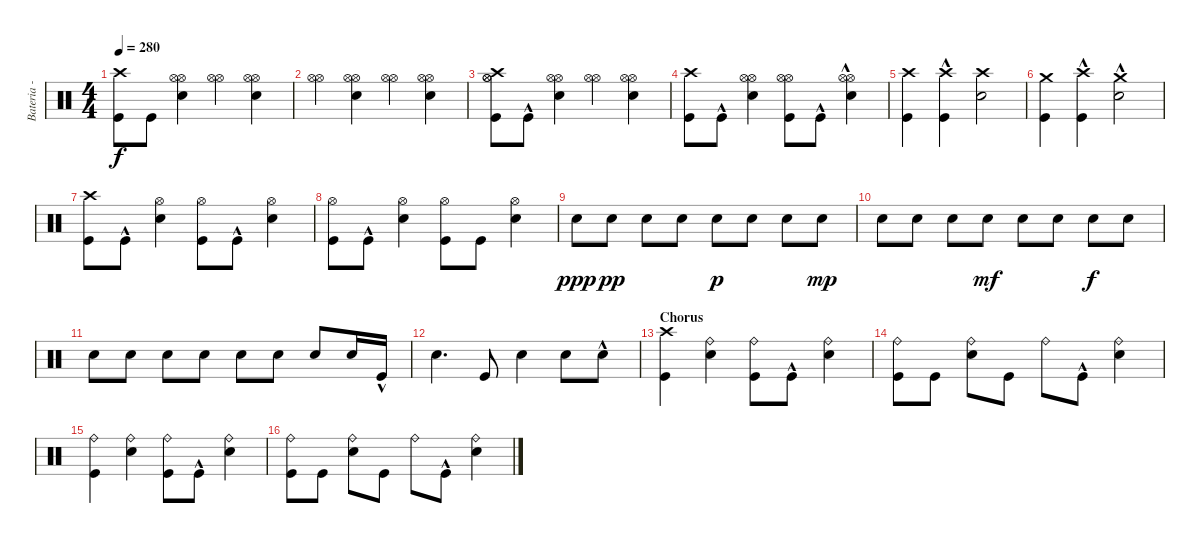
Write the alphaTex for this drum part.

\track ("Bateria - Larzon" "Bateria - ") {instrument percussion}
\staff {score}
\articulation defaults
\ts (4 4)
\tempo 280
\clef neutral
\ks c
("Kick (hit)" "Crash high (hit)").8{dy f} "Kick (hit)".8 ("Snare (hit) 2" "Hi-Hat (open)" "Hi-Hat (open)").4 ("Hi-Hat (open)" "Hi-Hat (open)").4 ("Snare (hit) 2" "Hi-Hat (open)" "Hi-Hat (open)").4 |
("Hi-Hat (open)" "Hi-Hat (open)").4 ("Snare (hit) 2" "Hi-Hat (open)" "Hi-Hat (open)").4 ("Hi-Hat (open)" "Hi-Hat (open)").4 ("Snare (hit) 2" "Hi-Hat (open)" "Hi-Hat (open)").4 |
("Kick (hit)" "Hi-Hat (open)" "Hi-Hat (open)" "Crash high (hit)").8 "Kick (hit)"{hac}.8 ("Snare (hit) 2" "Hi-Hat (open)" "Hi-Hat (open)").4 ("Hi-Hat (open)" "Hi-Hat (open)").4 ("Snare (hit) 2" "Hi-Hat (open)" "Hi-Hat (open)").4 |
("Kick (hit)" "Crash high (hit)").8 "Kick (hit)"{hac}.8 ("Snare (hit) 2" "Hi-Hat (open)" "Hi-Hat (open)").4 ("Kick (hit)" "Hi-Hat (open)" "Hi-Hat (open)").8 "Kick (hit)"{hac}.8 ("Snare (hit) 2"{hac} "Hi-Hat (open)" "Hi-Hat (open)").4 |
("Kick (hit)" "Crash high (hit)").4 ("Kick (hit)"{hac} "Crash high (hit)").4 ("Snare (hit) 2" "Crash high (hit)").2 |
("Kick (hit)" "Crash medium (hit)").4 ("Kick (hit)"{hac} "Crash high (hit)").4 ("Snare (hit) 2"{hac} "Crash medium (hit)").2 |
("Kick (hit)" "Crash high (hit)").8 "Kick (hit)"{hac}.8 ("Snare (hit) 2" "Hi-Hat (open)").4 ("Kick (hit)" "Hi-Hat (open)").8 "Kick (hit)"{hac}.8 ("Snare (hit) 2" "Hi-Hat (open)").4 |
("Kick (hit)" "Hi-Hat (open)").8 "Kick (hit)"{hac}.8 ("Snare (hit) 2" "Hi-Hat (open)").4 ("Kick (hit)" "Hi-Hat (open)").8 "Kick (hit)".8 ("Snare (hit) 2" "Hi-Hat (open)").4 |
"Snare (hit) 2".8{dy ppp} "Snare (hit) 2".8{dy pp} "Snare (hit) 2".8 "Snare (hit) 2".8 "Snare (hit) 2".8{dy p} "Snare (hit) 2".8 "Snare (hit) 2".8 "Snare (hit) 2".8{dy mp} |
"Snare (hit) 2".8 "Snare (hit) 2".8 "Snare (hit) 2".8 "Snare (hit) 2".8{dy mf} "Snare (hit) 2".8 "Snare (hit) 2".8 "Snare (hit) 2".8{dy f} "Snare (hit) 2".8 |
"Snare (hit) 2".8 "Snare (hit) 2".8 "Snare (hit) 2".8 "Snare (hit) 2".8 "Snare (hit) 2".8 "Snare (hit) 2".8 "Snare (hit) 2".8 "Snare (hit) 2".16 "Kick (hit)"{hac}.16 |
"Snare (hit) 2".4{d} "Kick (hit)".8 "Snare (hit) 2".4 "Snare (hit) 2".8 "Snare (hit) 2"{hac}.8 |
\section ("" "Chorus")
("Kick (hit)" "Crash high (hit)").4 ("Snare (hit) 2" "Ride (bell)").4 ("Kick (hit)" "Ride (bell)").8 "Kick (hit)"{hac}.8 ("Snare (hit) 2" "Ride (bell)").4 |
("Kick (hit)" "Ride (bell)").8 "Kick (hit)".8 ("Snare (hit) 2" "Ride (bell)").8 "Kick (hit)".8 "Ride (bell)".8 "Kick (hit)"{hac}.8 ("Snare (hit) 2" "Ride (bell)").4 |
("Kick (hit)" "Ride (bell)").4 ("Snare (hit) 2" "Ride (bell)").4 ("Kick (hit)" "Ride (bell)").8 "Kick (hit)"{hac}.8 ("Snare (hit) 2" "Ride (bell)").4 |
("Kick (hit)" "Ride (bell)").8 "Kick (hit)".8 ("Snare (hit) 2" "Ride (bell)").8 "Kick (hit)".8 "Ride (bell)".8 "Kick (hit)"{hac}.8 ("Snare (hit) 2" "Ride (bell)").4
